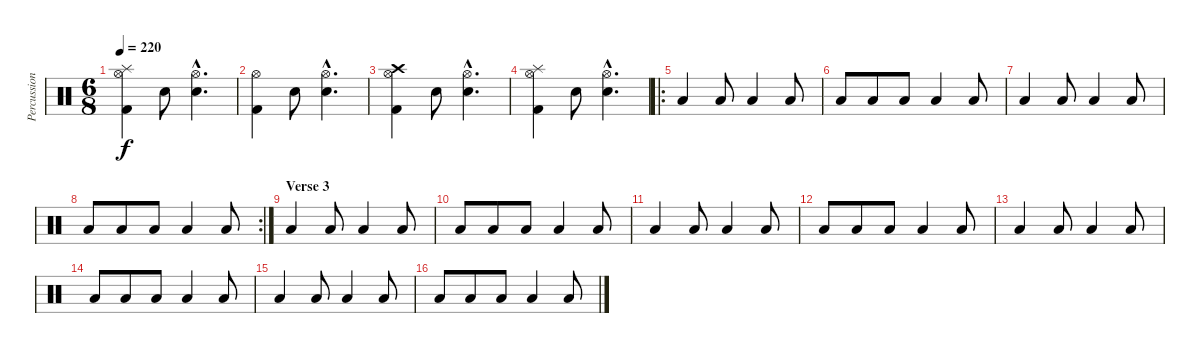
\track ("Percussion" "Percussion") {instrument percussion}
\staff {score}
\articulation defaults
\ts (6 8)
\tempo 220
\clef neutral
\ks c
("Hi-Hat (open)" "Splash (hit)" "Kick (hit) 2").4{dy f} "Snare (hit) 2".8 ("Hi-Hat (open)"{hac} "Electric Snare (hit)"{hac}).4{d} |
("Hi-Hat (open)" "Kick (hit) 2").4 "Snare (hit) 2".8 ("Hi-Hat (open)"{hac} "Electric Snare (hit)"{hac}).4{d} |
("Hi-Hat (open)" "Crash high (hit)" "Kick (hit) 2").4 "Snare (hit) 2".8 ("Hi-Hat (open)"{hac} "Electric Snare (hit)"{hac}).4{d} |
("Hi-Hat (open)" "Splash (hit)" "Kick (hit) 2").4 "Snare (hit) 2".8 ("Hi-Hat (open)"{hac} "Electric Snare (hit)"{hac}).4{d} |
\ro "Low Floor Tom (hit)".4{volume 7} "Low Floor Tom (hit)".8 "Low Tom (hit)".4 "Low Tom (hit)".8
|
"Low Floor Tom (hit)".8 "Low Floor Tom (hit)".8 "Low Floor Tom (hit)".8 "Low Tom (hit)".4 "Low Tom (hit)".8 |
"Low Floor Tom (hit)".4 "Low Floor Tom (hit)".8 "Low Tom (hit)".4 "Low Tom (hit)".8 |
\rc 2 "Low Floor Tom (hit)".8 "Low Floor Tom (hit)".8 "Low Floor Tom (hit)".8 "Low Tom (hit)".4 "Low Tom (hit)".8
|
\section ("" "Verse 3")
"Low Floor Tom (hit)".4 "Low Floor Tom (hit)".8 "Low Tom (hit)".4 "Low Tom (hit)".8 |
"Low Floor Tom (hit)".8 "Low Floor Tom (hit)".8 "Low Floor Tom (hit)".8 "Low Tom (hit)".4 "Low Tom (hit)".8 |
"Low Floor Tom (hit)".4 "Low Floor Tom (hit)".8 "Low Tom (hit)".4 "Low Tom (hit)".8 |
"Low Floor Tom (hit)".8 "Low Floor Tom (hit)".8 "Low Floor Tom (hit)".8 "Low Tom (hit)".4 "Low Tom (hit)".8 |
"Low Floor Tom (hit)".4 "Low Floor Tom (hit)".8 "Low Tom (hit)".4 "Low Tom (hit)".8 |
"Low Floor Tom (hit)".8 "Low Floor Tom (hit)".8 "Low Floor Tom (hit)".8 "Low Tom (hit)".4 "Low Tom (hit)".8 |
"Low Floor Tom (hit)".4 "Low Floor Tom (hit)".8 "Low Tom (hit)".4 "Low Tom (hit)".8 |
"Low Floor Tom (hit)".8 "Low Floor Tom (hit)".8 "Low Floor Tom (hit)".8 "Low Tom (hit)".4 "Low Tom (hit)".8
